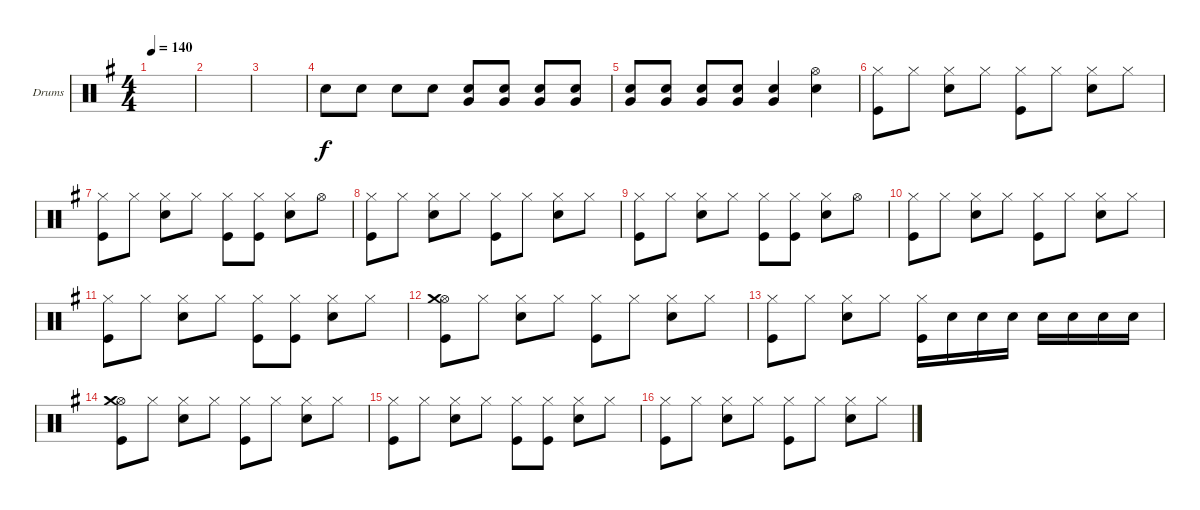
\defaultSystemsLayout 4
\bracketExtendMode groupsimilarinstruments
\firstSystemTrackNameOrientation horizontal
\otherSystemsTrackNameOrientation horizontal
\track ("Drumkit" "Drums") {instrument percussion}
\staff {score}
\articulation defaults
\ts (4 4)
\tempo 140
\clef neutral
\scale
0.504425
\ks g
|
\scale
0.247788 |
\scale
0.247788 |
"Snare (hit) 2".8 "Snare (hit) 2".8 "Snare (hit) 2".8 "Snare (hit) 2".8 ("Snare (hit) 2" "Very Low Tom (hit)").8 ("Very Low Tom (hit)" "Snare (hit) 2").8 ("Very Low Tom (hit)" "Snare (hit) 2").8 ("Very Low Tom (hit)" "Snare (hit) 2").8 |
("Snare (hit) 2" "Very Low Tom (hit)").8 ("Snare (hit) 2" "Very Low Tom (hit)").8 ("Snare (hit) 2" "Very Low Tom (hit)").8 ("Snare (hit) 2" "Very Low Tom (hit)").8 ("Snare (hit) 2" "Very Low Tom (hit)").4 ("Snare (hit) 2" "Hi-Hat (open)").4 |
("Hi-Hat (closed)" "Kick (hit)").8 "Hi-Hat (closed)".8 ("Hi-Hat (closed)" "Snare (hit) 2").8 "Hi-Hat (closed)".8 ("Hi-Hat (closed)" "Kick (hit)").8 "Hi-Hat (closed)".8 ("Hi-Hat (closed)" "Snare (hit) 2").8 "Hi-Hat (closed)".8 |
("Hi-Hat (closed)" "Kick (hit)").8 "Hi-Hat (closed)".8 ("Hi-Hat (closed)" "Snare (hit) 2").8 "Hi-Hat (closed)".8 ("Hi-Hat (closed)" "Kick (hit)").8 ("Kick (hit)" "Hi-Hat (closed)").8 ("Hi-Hat (closed)" "Snare (hit) 2").8 "Hi-Hat (open)".8 |
("Hi-Hat (closed)" "Kick (hit)").8 "Hi-Hat (closed)".8 ("Hi-Hat (closed)" "Snare (hit) 2").8 "Hi-Hat (closed)".8 ("Hi-Hat (closed)" "Kick (hit)").8 "Hi-Hat (closed)".8 ("Hi-Hat (closed)" "Snare (hit) 2").8 "Hi-Hat (closed)".8 |
("Hi-Hat (closed)" "Kick (hit)").8 "Hi-Hat (closed)".8 ("Hi-Hat (closed)" "Snare (hit) 2").8 "Hi-Hat (closed)".8 ("Hi-Hat (closed)" "Kick (hit)").8 ("Kick (hit)" "Hi-Hat (closed)").8 ("Hi-Hat (closed)" "Snare (hit) 2").8 "Hi-Hat (open)".8 |
("Hi-Hat (closed)" "Kick (hit)").8 "Hi-Hat (closed)".8 ("Hi-Hat (closed)" "Snare (hit) 2").8 "Hi-Hat (closed)".8 ("Hi-Hat (closed)" "Kick (hit)").8 "Hi-Hat (closed)".8 ("Hi-Hat (closed)" "Snare (hit) 2").8 "Hi-Hat (closed)".8 |
("Hi-Hat (closed)" "Kick (hit)").8 "Hi-Hat (closed)".8 ("Hi-Hat (closed)" "Snare (hit) 2").8 "Hi-Hat (closed)".8 ("Hi-Hat (closed)" "Kick (hit)").8 ("Kick (hit)" "Hi-Hat (closed)").8 ("Hi-Hat (closed)" "Snare (hit) 2").8 "Hi-Hat (closed)".8 |
("Hi-Hat (open)" "Crash medium (hit)" "Kick (hit)").8 "Hi-Hat (closed)".8 ("Hi-Hat (closed)" "Snare (hit) 2").8 "Hi-Hat (closed)".8 ("Kick (hit)" "Hi-Hat (closed)").8 "Hi-Hat (closed)".8 ("Hi-Hat (closed)" "Snare (hit) 2").8 "Hi-Hat (closed)".8 |
("Hi-Hat (closed)" "Kick (hit)").8 "Hi-Hat (closed)".8 ("Hi-Hat (closed)" "Snare (hit) 2").8 "Hi-Hat (closed)".8 ("Hi-Hat (closed)" "Kick (hit)").16 "Snare (hit) 2".16 "Snare (hit) 2".16 "Snare (hit) 2".16 "Snare (hit) 2".16 "Snare (hit) 2".16 "Snare (hit) 2".16 "Snare (hit) 2".16 |
("Hi-Hat (open)" "Crash medium (hit)" "Kick (hit)").8 "Hi-Hat (closed)".8 ("Hi-Hat (closed)" "Snare (hit) 2").8 "Hi-Hat (closed)".8 ("Hi-Hat (closed)" "Kick (hit)").8 "Hi-Hat (closed)".8 ("Hi-Hat (closed)" "Snare (hit) 2").8 "Hi-Hat (closed)".8 |
("Hi-Hat (closed)" "Kick (hit)").8 "Hi-Hat (closed)".8 ("Hi-Hat (closed)" "Snare (hit) 2").8 "Hi-Hat (closed)".8 ("Hi-Hat (closed)" "Kick (hit)").8 ("Kick (hit)" "Hi-Hat (closed)").8 ("Hi-Hat (closed)" "Snare (hit) 2").8 "Hi-Hat (closed)".8 |
("Hi-Hat (closed)" "Kick (hit)").8 "Hi-Hat (closed)".8 ("Hi-Hat (closed)" "Snare (hit) 2").8 "Hi-Hat (closed)".8 ("Hi-Hat (closed)" "Kick (hit)").8 "Hi-Hat (closed)".8 ("Hi-Hat (closed)" "Snare (hit) 2").8 "Hi-Hat (closed)".8
